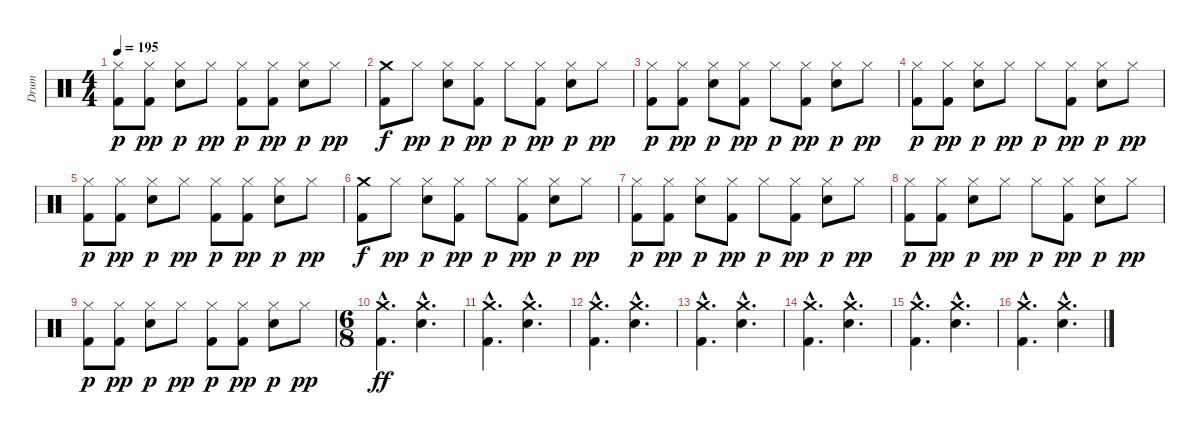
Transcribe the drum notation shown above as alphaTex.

\track ("Drum" "Drum") {instrument percussion}
\staff {score}
\articulation defaults
\ts (4 4)
\tempo 195
\clef neutral
\ks c
("Hi-Hat (closed)" "Kick (hit) 2").8{dy p} ("Hi-Hat (closed)" "Kick (hit) 2").8{dy pp} ("Hi-Hat (closed)" "Electric Snare (hit)").8{dy p} "Hi-Hat (closed)".8{dy pp} ("Hi-Hat (closed)" "Kick (hit) 2").8{dy p} ("Hi-Hat (closed)" "Kick (hit) 2").8{dy pp} ("Hi-Hat (closed)" "Electric Snare (hit)").8{dy p} "Hi-Hat (closed)".8{dy pp} |
("Crash medium (hit)" "Kick (hit) 2").8{dy f} "Hi-Hat (closed)".8{dy pp} ("Hi-Hat (closed)" "Electric Snare (hit)").8{dy p} ("Hi-Hat (closed)" "Kick (hit) 2").8{dy pp} "Hi-Hat (closed)".8{dy p} ("Hi-Hat (closed)" "Kick (hit) 2").8{dy pp} ("Hi-Hat (closed)" "Electric Snare (hit)").8{dy p} "Hi-Hat (closed)".8{dy pp} |
("Hi-Hat (closed)" "Kick (hit) 2").8{dy p} ("Hi-Hat (closed)" "Kick (hit) 2").8{dy pp} ("Hi-Hat (closed)" "Electric Snare (hit)").8{dy p} ("Hi-Hat (closed)" "Kick (hit) 2").8{dy pp} "Hi-Hat (closed)".8{dy p} ("Hi-Hat (closed)" "Kick (hit) 2").8{dy pp} ("Hi-Hat (closed)" "Electric Snare (hit)").8{dy p} "Hi-Hat (closed)".8{dy pp} |
("Hi-Hat (closed)" "Kick (hit) 2").8{dy p} ("Hi-Hat (closed)" "Kick (hit) 2").8{dy pp} ("Hi-Hat (closed)" "Electric Snare (hit)").8{dy p} "Hi-Hat (closed)".8{dy pp} "Hi-Hat (closed)".8{dy p} ("Hi-Hat (closed)" "Kick (hit) 2").8{dy pp} ("Hi-Hat (closed)" "Electric Snare (hit)").8{dy p} "Hi-Hat (closed)".8{dy pp} |
("Hi-Hat (closed)" "Kick (hit) 2").8{dy p} ("Hi-Hat (closed)" "Kick (hit) 2").8{dy pp} ("Hi-Hat (closed)" "Electric Snare (hit)").8{dy p} "Hi-Hat (closed)".8{dy pp} ("Hi-Hat (closed)" "Kick (hit) 2").8{dy p} ("Hi-Hat (closed)" "Kick (hit) 2").8{dy pp} ("Hi-Hat (closed)" "Electric Snare (hit)").8{dy p} "Hi-Hat (closed)".8{dy pp} |
("Crash medium (hit)" "Kick (hit) 2").8{dy f} "Hi-Hat (closed)".8{dy pp} ("Hi-Hat (closed)" "Electric Snare (hit)").8{dy p} ("Hi-Hat (closed)" "Kick (hit) 2").8{dy pp} "Hi-Hat (closed)".8{dy p} ("Hi-Hat (closed)" "Kick (hit) 2").8{dy pp} ("Hi-Hat (closed)" "Electric Snare (hit)").8{dy p} "Hi-Hat (closed)".8{dy pp} |
("Hi-Hat (closed)" "Kick (hit) 2").8{dy p} ("Hi-Hat (closed)" "Kick (hit) 2").8{dy pp} ("Hi-Hat (closed)" "Electric Snare (hit)").8{dy p} ("Hi-Hat (closed)" "Kick (hit) 2").8{dy pp} "Hi-Hat (closed)".8{dy p} ("Hi-Hat (closed)" "Kick (hit) 2").8{dy pp} ("Hi-Hat (closed)" "Electric Snare (hit)").8{dy p} "Hi-Hat (closed)".8{dy pp} |
("Hi-Hat (closed)" "Kick (hit) 2").8{dy p} ("Hi-Hat (closed)" "Kick (hit) 2").8{dy pp} ("Hi-Hat (closed)" "Electric Snare (hit)").8{dy p} "Hi-Hat (closed)".8{dy pp} "Hi-Hat (closed)".8{dy p} ("Hi-Hat (closed)" "Kick (hit) 2").8{dy pp} ("Hi-Hat (closed)" "Electric Snare (hit)").8{dy p} "Hi-Hat (closed)".8{dy pp} |
("Hi-Hat (closed)" "Kick (hit) 2").8{dy p} ("Hi-Hat (closed)" "Kick (hit) 2").8{dy pp} ("Hi-Hat (closed)" "Electric Snare (hit)").8{dy p} "Hi-Hat (closed)".8{dy pp} ("Hi-Hat (closed)" "Kick (hit) 2").8{dy p} ("Hi-Hat (closed)" "Kick (hit) 2").8{dy pp} ("Hi-Hat (closed)" "Electric Snare (hit)").8{dy p} "Hi-Hat (closed)".8{dy pp} |
\ts (6 8)
("Crash medium (hit)"{hac} "Kick (hit) 2"{hac}).4{d dy ff} ("Crash medium (hit)"{hac} "Electric Snare (hit)"{hac}).4{d} |
("Crash medium (hit)"{hac} "Kick (hit) 2"{hac}).4{d} ("Crash medium (hit)"{hac} "Electric Snare (hit)"{hac}).4{d} |
("Crash medium (hit)"{hac} "Kick (hit) 2"{hac}).4{d} ("Crash medium (hit)"{hac} "Electric Snare (hit)"{hac}).4{d} |
("Crash medium (hit)"{hac} "Kick (hit) 2"{hac}).4{d} ("Crash medium (hit)"{hac} "Electric Snare (hit)"{hac}).4{d} |
("Crash medium (hit)"{hac} "Kick (hit) 2"{hac}).4{d} ("Crash medium (hit)"{hac} "Electric Snare (hit)"{hac}).4{d} |
("Crash medium (hit)"{hac} "Kick (hit) 2"{hac}).4{d} ("Crash medium (hit)"{hac} "Electric Snare (hit)"{hac}).4{d} |
("Crash medium (hit)"{hac} "Kick (hit) 2"{hac}).4{d} ("Crash medium (hit)"{hac} "Electric Snare (hit)"{hac}).4{d}
